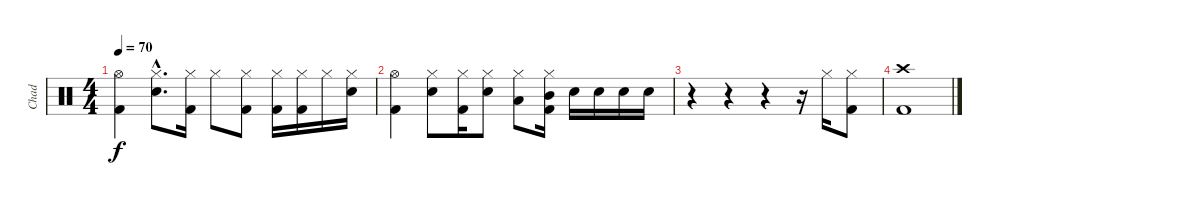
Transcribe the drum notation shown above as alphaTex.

\track ("Chad" "Chad") {instrument percussion}
\staff {score}
\articulation defaults
\ts (4 4)
\tempo 70
\clef neutral
\ks c
("Hi-Hat (open)" "Kick (hit) 2").4{dy f} ("Electric Snare (hit)"{hac} "Hi-Hat (closed)"{hac}).8{d} ("Hi-Hat (closed)" "Kick (hit) 2").16 "Hi-Hat (closed)".8 ("Hi-Hat (closed)" "Kick (hit) 2").8 ("Hi-Hat (closed)" "Kick (hit) 2").16 ("Hi-Hat (closed)" "Kick (hit) 2").16 "Hi-Hat (closed)".16 ("Electric Snare (hit)" "Hi-Hat (closed)").16 |
("Hi-Hat (open)" "Kick (hit) 2").4 ("Electric Snare (hit)" "Hi-Hat (closed)").8 ("Hi-Hat (closed)" "Kick (hit) 2").16 ("Electric Snare (hit)" "Hi-Hat (closed)").8 ("Low Tom (hit)" "Hi-Hat (closed)").8 ("Mid Tom (hit)" "Hi-Hat (closed)" "Kick (hit) 2").16 "Electric Snare (hit)".16 "Electric Snare (hit)".16 "Electric Snare (hit)".16 "Electric Snare (hit)".16 |
r.4 r.4 r.4 r.16 "Hi-Hat (closed)".16 ("Hi-Hat (closed)" "Kick (hit) 2").8 |
("Crash high (hit)" "Kick (hit) 2").1
